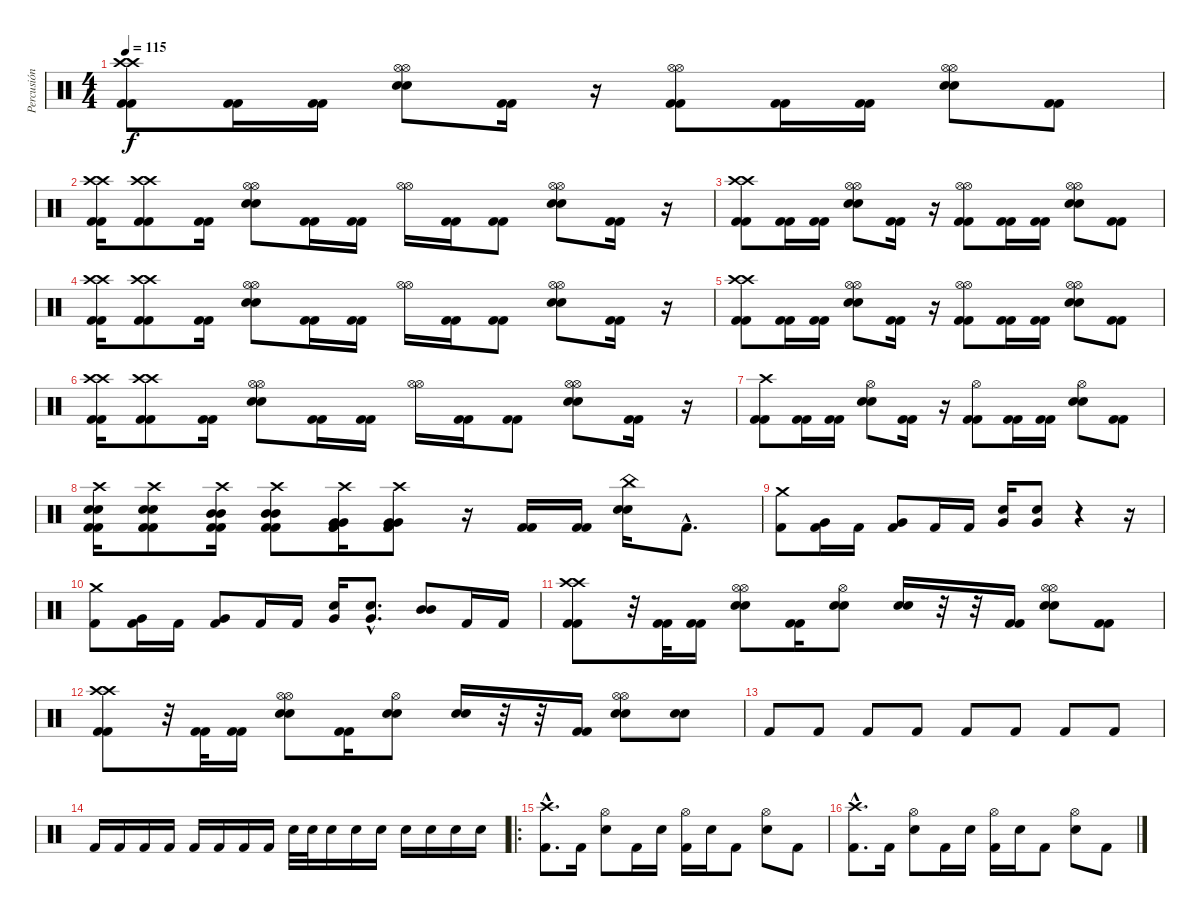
\track ("Percusión" "Percusión") {instrument percussion}
\staff {score}
\articulation defaults
\ts (4 4)
\tempo 115
\clef neutral
\ks c
("Crash high (hit)" "Crash high (hit)" "Kick (hit) 2" "Kick (hit) 2").8{dy f} ("Kick (hit) 2" "Kick (hit) 2").16 ("Kick (hit) 2" "Kick (hit) 2").16 ("Hi-Hat (open)" "Hi-Hat (open)" "Electric Snare (hit)" "Electric Snare (hit)").8 ("Kick (hit) 2" "Kick (hit) 2").16 r.16 ("Hi-Hat (open)" "Hi-Hat (open)" "Kick (hit) 2" "Kick (hit) 2").8 ("Kick (hit) 2" "Kick (hit) 2").16 ("Kick (hit) 2" "Kick (hit) 2").16 ("Hi-Hat (open)" "Hi-Hat (open)" "Electric Snare (hit)" "Electric Snare (hit)").8 ("Kick (hit) 2" "Kick (hit) 2").8 |
("Kick (hit) 2" "Crash high (hit)" "Crash high (hit)" "Kick (hit) 2").16 ("Kick (hit) 2" "Crash high (hit)" "Crash high (hit)" "Kick (hit) 2").8 ("Kick (hit) 2" "Kick (hit) 2").16 ("Hi-Hat (open)" "Hi-Hat (open)" "Electric Snare (hit)" "Electric Snare (hit)").8 ("Kick (hit) 2" "Kick (hit) 2").16 ("Kick (hit) 2" "Kick (hit) 2").16 ("Hi-Hat (open)" "Hi-Hat (open)").16 ("Kick (hit) 2" "Kick (hit) 2").16 ("Kick (hit) 2" "Kick (hit) 2").8 ("Hi-Hat (open)" "Hi-Hat (open)" "Electric Snare (hit)" "Electric Snare (hit)").8 ("Kick (hit) 2" "Kick (hit) 2").16 r.16 |
("Crash high (hit)" "Crash high (hit)" "Kick (hit) 2" "Kick (hit) 2").8 ("Kick (hit) 2" "Kick (hit) 2").16 ("Kick (hit) 2" "Kick (hit) 2").16 ("Hi-Hat (open)" "Hi-Hat (open)" "Electric Snare (hit)" "Electric Snare (hit)").8 ("Kick (hit) 2" "Kick (hit) 2").16 r.16 ("Hi-Hat (open)" "Hi-Hat (open)" "Kick (hit) 2" "Kick (hit) 2").8 ("Kick (hit) 2" "Kick (hit) 2").16 ("Kick (hit) 2" "Kick (hit) 2").16 ("Hi-Hat (open)" "Hi-Hat (open)" "Electric Snare (hit)" "Electric Snare (hit)").8 ("Kick (hit) 2" "Kick (hit) 2").8 |
("Kick (hit) 2" "Crash high (hit)" "Crash high (hit)" "Kick (hit) 2").16 ("Kick (hit) 2" "Crash high (hit)" "Crash high (hit)" "Kick (hit) 2").8 ("Kick (hit) 2" "Kick (hit) 2").16 ("Hi-Hat (open)" "Hi-Hat (open)" "Electric Snare (hit)" "Electric Snare (hit)").8 ("Kick (hit) 2" "Kick (hit) 2").16 ("Kick (hit) 2" "Kick (hit) 2").16 ("Hi-Hat (open)" "Hi-Hat (open)").16 ("Kick (hit) 2" "Kick (hit) 2").16 ("Kick (hit) 2" "Kick (hit) 2").8 ("Hi-Hat (open)" "Hi-Hat (open)" "Electric Snare (hit)" "Electric Snare (hit)").8 ("Kick (hit) 2" "Kick (hit) 2").16 r.16 |
("Crash high (hit)" "Crash high (hit)" "Kick (hit) 2" "Kick (hit) 2").8 ("Kick (hit) 2" "Kick (hit) 2").16 ("Kick (hit) 2" "Kick (hit) 2").16 ("Hi-Hat (open)" "Hi-Hat (open)" "Electric Snare (hit)" "Electric Snare (hit)").8 ("Kick (hit) 2" "Kick (hit) 2").16 r.16 ("Hi-Hat (open)" "Hi-Hat (open)" "Kick (hit) 2" "Kick (hit) 2").8 ("Kick (hit) 2" "Kick (hit) 2").16 ("Kick (hit) 2" "Kick (hit) 2").16 ("Hi-Hat (open)" "Hi-Hat (open)" "Electric Snare (hit)" "Electric Snare (hit)").8 ("Kick (hit) 2" "Kick (hit) 2").8 |
("Kick (hit) 2" "Crash high (hit)" "Crash high (hit)" "Kick (hit) 2").16 ("Kick (hit) 2" "Crash high (hit)" "Crash high (hit)" "Kick (hit) 2").8 ("Kick (hit) 2" "Kick (hit) 2").16 ("Hi-Hat (open)" "Hi-Hat (open)" "Electric Snare (hit)" "Electric Snare (hit)").8 ("Kick (hit) 2" "Kick (hit) 2").16 ("Kick (hit) 2" "Kick (hit) 2").16 ("Hi-Hat (open)" "Hi-Hat (open)").16 ("Kick (hit) 2" "Kick (hit) 2").16 ("Kick (hit) 2" "Kick (hit) 2").8 ("Hi-Hat (open)" "Hi-Hat (open)" "Electric Snare (hit)" "Electric Snare (hit)").8 ("Kick (hit) 2" "Kick (hit) 2").16 r.16 |
("Crash high (hit)" "Kick (hit) 2" "Kick (hit) 2").8 ("Kick (hit) 2" "Kick (hit) 2").16 ("Kick (hit) 2" "Kick (hit) 2").16 ("Hi-Hat (open)" "Electric Snare (hit)" "Electric Snare (hit)").8 ("Kick (hit) 2" "Kick (hit) 2").16 r.16 ("Hi-Hat (open)" "Kick (hit) 2" "Kick (hit) 2").8 ("Kick (hit) 2" "Kick (hit) 2").16 ("Kick (hit) 2" "Kick (hit) 2").16 ("Hi-Hat (open)" "Electric Snare (hit)" "Electric Snare (hit)").8 ("Kick (hit) 2" "Kick (hit) 2").8 |
("Crash high (hit)" "Kick (hit) 2" "Electric Snare (hit)" "Electric Snare (hit)" "Kick (hit) 2").16 ("Crash high (hit)" "Kick (hit) 2" "Electric Snare (hit)" "Electric Snare (hit)" "Kick (hit) 2").8 ("Crash high (hit)" "Kick (hit) 2" "Mid Tom (hit)" "Mid Tom (hit)" "Kick (hit) 2").16 ("Crash high (hit)" "Kick (hit) 2" "Mid Tom (hit)" "Mid Tom (hit)" "Kick (hit) 2").8 ("Crash high (hit)" "Kick (hit) 2" "Very Low Tom (hit)" "Very Low Tom (hit)" "Kick (hit) 2").16 ("Crash high (hit)" "Kick (hit) 2" "Very Low Tom (hit)" "Very Low Tom (hit)" "Kick (hit) 2").8 r.16 ("Kick (hit) 2" "Kick (hit) 2").16 ("Kick (hit) 2" "Kick (hit) 2").16 ("China (hit)" "Electric Snare (hit)" "Electric Snare (hit)").16 "Kick (hit) 2"{hac}.8{d} |
("Crash medium (hit)" "Kick (hit) 2").8 ("Very Low Tom (hit)" "Kick (hit) 2").16 "Kick (hit) 2".16 ("Very Low Tom (hit)" "Kick (hit) 2").8 "Kick (hit) 2".16 "Kick (hit) 2".16 ("Electric Snare (hit)" "Very Low Tom (hit)").16 ("Electric Snare (hit)" "Very Low Tom (hit)").8 r.4 r.16 |
("Crash medium (hit)" "Kick (hit) 2").8 ("Very Low Tom (hit)" "Kick (hit) 2").16 "Kick (hit) 2".16 ("Very Low Tom (hit)" "Kick (hit) 2").8 "Kick (hit) 2".16 "Kick (hit) 2".16 ("Electric Snare (hit)" "Very Low Tom (hit)").16 ("Electric Snare (hit)"{hac} "Very Low Tom (hit)"{hac}).8{d} ("Mid Tom (hit)" "Mid Tom (hit)").8 "Kick (hit) 2".16 "Kick (hit) 2".16 |
("Crash high (hit)" "Crash high (hit)" "Kick (hit) 2" "Kick (hit) 2").8 r.32 ("Kick (hit) 2" "Kick (hit) 2").32 ("Kick (hit) 2" "Kick (hit) 2").16 ("Hi-Hat (open)" "Hi-Hat (open)" "Electric Snare (hit)" "Electric Snare (hit)").8 ("Kick (hit) 2" "Kick (hit) 2").16 ("Hi-Hat (open)" "Electric Snare (hit)" "Electric Snare (hit)").8 ("Electric Snare (hit)" "Electric Snare (hit)").16 r.32 r.32 ("Kick (hit) 2" "Kick (hit) 2").16 ("Hi-Hat (open)" "Hi-Hat (open)" "Electric Snare (hit)" "Electric Snare (hit)").8 ("Kick (hit) 2" "Kick (hit) 2").8 |
("Crash high (hit)" "Crash high (hit)" "Kick (hit) 2" "Kick (hit) 2").8 r.32 ("Kick (hit) 2" "Kick (hit) 2").32 ("Kick (hit) 2" "Kick (hit) 2").16 ("Hi-Hat (open)" "Hi-Hat (open)" "Electric Snare (hit)" "Electric Snare (hit)").8 ("Kick (hit) 2" "Kick (hit) 2").16 ("Hi-Hat (open)" "Electric Snare (hit)" "Electric Snare (hit)").8 ("Electric Snare (hit)" "Electric Snare (hit)").16 r.32 r.32 ("Kick (hit) 2" "Kick (hit) 2").16 ("Hi-Hat (open)" "Hi-Hat (open)" "Electric Snare (hit)" "Electric Snare (hit)").8 ("Electric Snare (hit)" "Electric Snare (hit)").8 |
"Kick (hit) 2".8 "Kick (hit) 2".8 "Kick (hit) 2".8 "Kick (hit) 2".8 "Kick (hit) 2".8 "Kick (hit) 2".8 "Kick (hit) 2".8 "Kick (hit) 2".8 |
"Kick (hit) 2".16 "Kick (hit) 2".16 "Kick (hit) 2".16 "Kick (hit) 2".16 "Kick (hit) 2".16 "Kick (hit) 2".16 "Kick (hit) 2".16 "Kick (hit) 2".16 "Electric Snare (hit)".32 "Electric Snare (hit)".32 "Electric Snare (hit)".16 "Electric Snare (hit)".16 "Electric Snare (hit)".16 "Electric Snare (hit)".16 "Electric Snare (hit)".16 "Electric Snare (hit)".16 "Electric Snare (hit)".16 |
\ro
("Crash high (hit)"{hac} "Kick (hit) 2"{hac}).8{d} "Kick (hit) 2".16 ("Hi-Hat (open)" "Electric Snare (hit)").8 "Kick (hit) 2".16 "Electric Snare (hit)".16 ("Hi-Hat (open)" "Kick (hit) 2").16 "Electric Snare (hit)".16 "Kick (hit) 2".8 ("Hi-Hat (open)" "Electric Snare (hit)").8 "Kick (hit) 2".8 |
("Crash high (hit)"{hac} "Kick (hit) 2"{hac}).8{d} "Kick (hit) 2".16 ("Hi-Hat (open)" "Electric Snare (hit)").8 "Kick (hit) 2".16 "Electric Snare (hit)".16 ("Hi-Hat (open)" "Kick (hit) 2").16 "Electric Snare (hit)".16 "Kick (hit) 2".8 ("Hi-Hat (open)" "Electric Snare (hit)").8 "Kick (hit) 2".8
